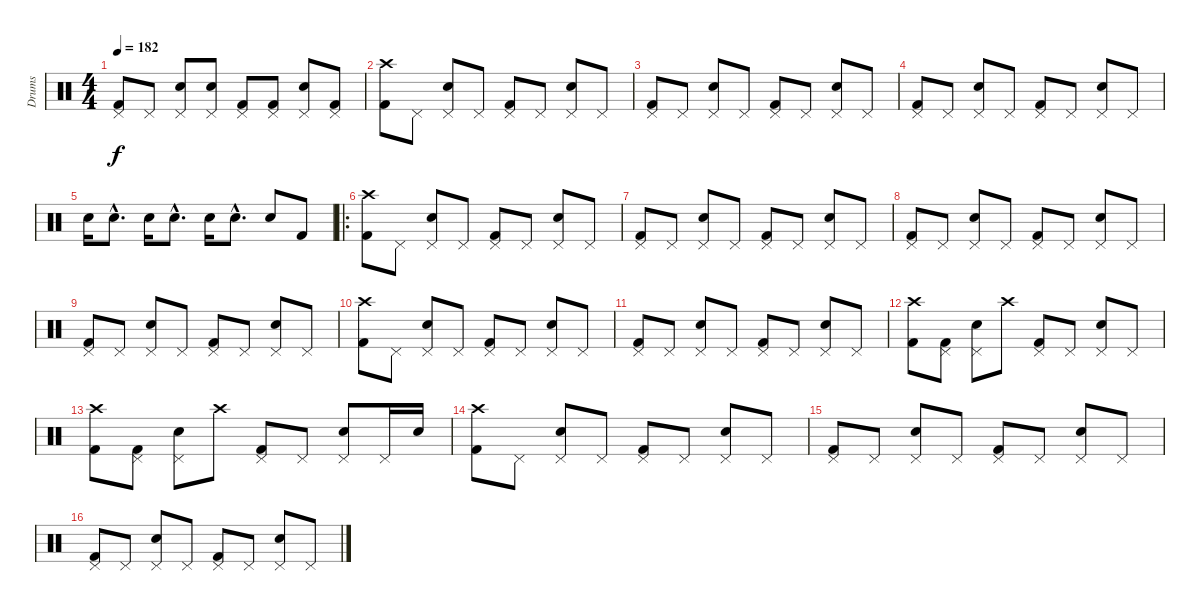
\track ("Drums" "Drums") {instrument percussion}
\staff {score}
\articulation defaults
\ts (4 4)
\tempo 182
\clef neutral
\ks c
("Pedal Hi-Hat (hit)" "Kick (hit) 2").8{dy f} "Pedal Hi-Hat (hit)".8 ("Pedal Hi-Hat (hit)" "Electric Snare (hit)").8 ("Pedal Hi-Hat (hit)" "Electric Snare (hit)").8 ("Pedal Hi-Hat (hit)" "Kick (hit) 2").8 ("Pedal Hi-Hat (hit)" "Kick (hit) 2").8 ("Pedal Hi-Hat (hit)" "Electric Snare (hit)").8 ("Pedal Hi-Hat (hit)" "Kick (hit) 2").8 |
("Crash high (hit)" "Kick (hit) 2").8 "Pedal Hi-Hat (hit)".8 ("Pedal Hi-Hat (hit)" "Electric Snare (hit)").8 "Pedal Hi-Hat (hit)".8 ("Pedal Hi-Hat (hit)" "Kick (hit) 2").8 "Pedal Hi-Hat (hit)".8 ("Pedal Hi-Hat (hit)" "Electric Snare (hit)").8 "Pedal Hi-Hat (hit)".8 |
("Pedal Hi-Hat (hit)" "Kick (hit) 2").8 "Pedal Hi-Hat (hit)".8 ("Pedal Hi-Hat (hit)" "Electric Snare (hit)").8 "Pedal Hi-Hat (hit)".8 ("Pedal Hi-Hat (hit)" "Kick (hit) 2").8 "Pedal Hi-Hat (hit)".8 ("Pedal Hi-Hat (hit)" "Electric Snare (hit)").8 "Pedal Hi-Hat (hit)".8 |
("Pedal Hi-Hat (hit)" "Kick (hit) 2").8 "Pedal Hi-Hat (hit)".8 ("Pedal Hi-Hat (hit)" "Electric Snare (hit)").8 "Pedal Hi-Hat (hit)".8 ("Pedal Hi-Hat (hit)" "Kick (hit) 2").8 "Pedal Hi-Hat (hit)".8 ("Pedal Hi-Hat (hit)" "Electric Snare (hit)").8 "Pedal Hi-Hat (hit)".8 |
"Electric Snare (hit)".16 "Electric Snare (hit)"{hac}.8{d} "Electric Snare (hit)".16 "Electric Snare (hit)"{hac}.8{d} "Electric Snare (hit)".16 "Electric Snare (hit)"{hac}.8{d} "Electric Snare (hit)".8 "Kick (hit) 2".8 |
\ro
("Crash high (hit)" "Kick (hit) 2").8 "Pedal Hi-Hat (hit)".8 ("Pedal Hi-Hat (hit)" "Electric Snare (hit)").8 "Pedal Hi-Hat (hit)".8 ("Pedal Hi-Hat (hit)" "Kick (hit) 2").8 "Pedal Hi-Hat (hit)".8 ("Pedal Hi-Hat (hit)" "Electric Snare (hit)").8 "Pedal Hi-Hat (hit)".8 |
("Pedal Hi-Hat (hit)" "Kick (hit) 2").8 "Pedal Hi-Hat (hit)".8 ("Pedal Hi-Hat (hit)" "Electric Snare (hit)").8 "Pedal Hi-Hat (hit)".8 ("Pedal Hi-Hat (hit)" "Kick (hit) 2").8 "Pedal Hi-Hat (hit)".8 ("Pedal Hi-Hat (hit)" "Electric Snare (hit)").8 "Pedal Hi-Hat (hit)".8 |
("Pedal Hi-Hat (hit)" "Kick (hit) 2").8 "Pedal Hi-Hat (hit)".8 ("Pedal Hi-Hat (hit)" "Electric Snare (hit)").8 "Pedal Hi-Hat (hit)".8 ("Pedal Hi-Hat (hit)" "Kick (hit) 2").8 "Pedal Hi-Hat (hit)".8 ("Pedal Hi-Hat (hit)" "Electric Snare (hit)").8 "Pedal Hi-Hat (hit)".8 |
("Pedal Hi-Hat (hit)" "Kick (hit) 2").8 "Pedal Hi-Hat (hit)".8 ("Pedal Hi-Hat (hit)" "Electric Snare (hit)").8 "Pedal Hi-Hat (hit)".8 ("Pedal Hi-Hat (hit)" "Kick (hit) 2").8 "Pedal Hi-Hat (hit)".8 ("Pedal Hi-Hat (hit)" "Electric Snare (hit)").8 "Pedal Hi-Hat (hit)".8 |
("Crash high (hit)" "Kick (hit) 2").8 "Pedal Hi-Hat (hit)".8 ("Pedal Hi-Hat (hit)" "Electric Snare (hit)").8 "Pedal Hi-Hat (hit)".8 ("Pedal Hi-Hat (hit)" "Kick (hit) 2").8 "Pedal Hi-Hat (hit)".8 ("Pedal Hi-Hat (hit)" "Electric Snare (hit)").8 "Pedal Hi-Hat (hit)".8 |
("Pedal Hi-Hat (hit)" "Kick (hit) 2").8 "Pedal Hi-Hat (hit)".8 ("Pedal Hi-Hat (hit)" "Electric Snare (hit)").8 "Pedal Hi-Hat (hit)".8 ("Pedal Hi-Hat (hit)" "Kick (hit) 2").8 "Pedal Hi-Hat (hit)".8 ("Pedal Hi-Hat (hit)" "Electric Snare (hit)").8 "Pedal Hi-Hat (hit)".8 |
("Crash high (hit)" "Kick (hit) 2").8 ("Pedal Hi-Hat (hit)" "Kick (hit) 2").8 ("Pedal Hi-Hat (hit)" "Electric Snare (hit)").8 "Crash high (hit)".8 ("Pedal Hi-Hat (hit)" "Kick (hit) 2").8 "Pedal Hi-Hat (hit)".8 ("Pedal Hi-Hat (hit)" "Electric Snare (hit)").8 "Pedal Hi-Hat (hit)".8 |
("Crash high (hit)" "Kick (hit) 2").8 ("Pedal Hi-Hat (hit)" "Kick (hit) 2").8 ("Pedal Hi-Hat (hit)" "Electric Snare (hit)").8 "Crash high (hit)".8 ("Pedal Hi-Hat (hit)" "Kick (hit) 2").8 "Pedal Hi-Hat (hit)".8 ("Pedal Hi-Hat (hit)" "Electric Snare (hit)").8 "Pedal Hi-Hat (hit)".16 "Electric Snare (hit)".16 |
("Crash high (hit)" "Kick (hit) 2").8 "Pedal Hi-Hat (hit)".8 ("Pedal Hi-Hat (hit)" "Electric Snare (hit)").8 "Pedal Hi-Hat (hit)".8 ("Pedal Hi-Hat (hit)" "Kick (hit) 2").8 "Pedal Hi-Hat (hit)".8 ("Pedal Hi-Hat (hit)" "Electric Snare (hit)").8 "Pedal Hi-Hat (hit)".8 |
("Pedal Hi-Hat (hit)" "Kick (hit) 2").8 "Pedal Hi-Hat (hit)".8 ("Pedal Hi-Hat (hit)" "Electric Snare (hit)").8 "Pedal Hi-Hat (hit)".8 ("Pedal Hi-Hat (hit)" "Kick (hit) 2").8 "Pedal Hi-Hat (hit)".8 ("Pedal Hi-Hat (hit)" "Electric Snare (hit)").8 "Pedal Hi-Hat (hit)".8 |
("Pedal Hi-Hat (hit)" "Kick (hit) 2").8 "Pedal Hi-Hat (hit)".8 ("Pedal Hi-Hat (hit)" "Electric Snare (hit)").8 "Pedal Hi-Hat (hit)".8 ("Pedal Hi-Hat (hit)" "Kick (hit) 2").8 "Pedal Hi-Hat (hit)".8 ("Pedal Hi-Hat (hit)" "Electric Snare (hit)").8 "Pedal Hi-Hat (hit)".8
